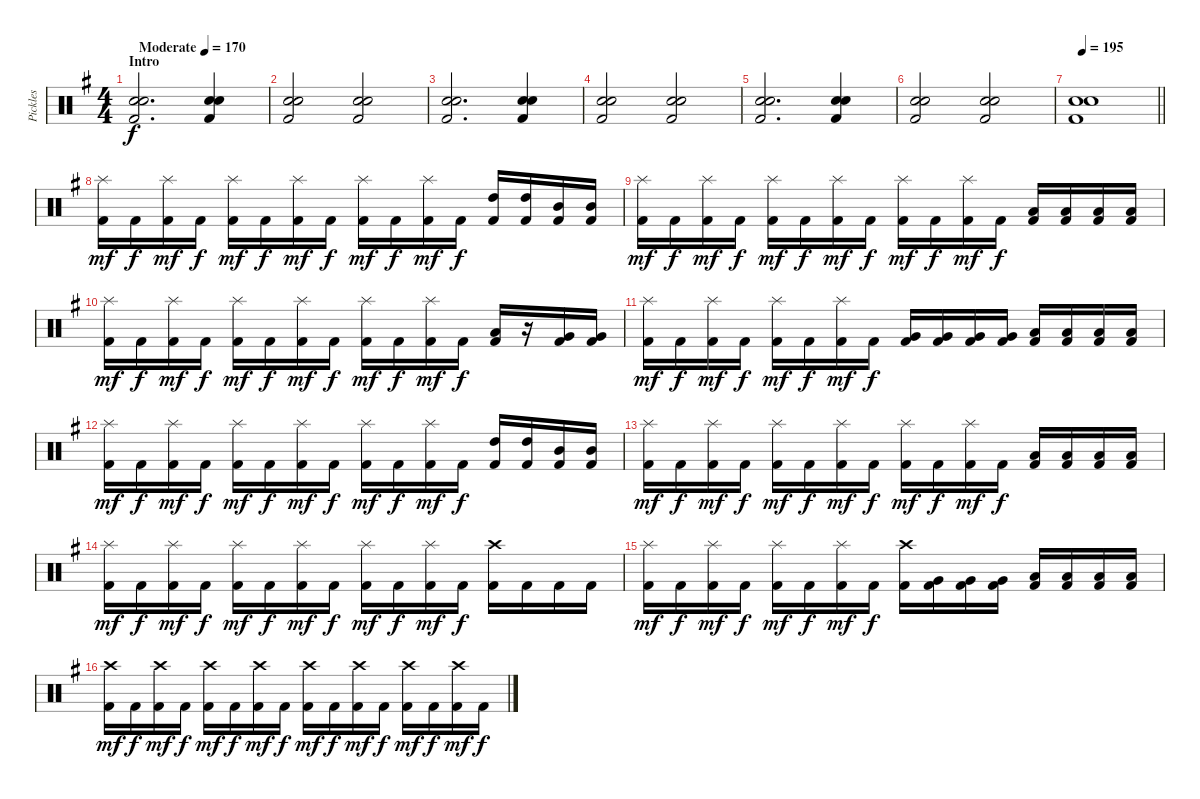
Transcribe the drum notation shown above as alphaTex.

\track ("Pickles" "Pickles") {instrument percussion}
\staff {score}
\articulation defaults
\ts (4 4)
\section ("" "Intro")
\tempo (170 "Moderate")
\clef neutral
\ks eminor
("Snare (hit) 2" "Snare (hit) 2" "Kick (hit) 2").2{d dy f} ("Snare (hit) 2" "Snare (hit) 2" "Kick (hit) 2").4 |
("Snare (hit) 2" "Snare (hit) 2" "Kick (hit) 2").2 ("Snare (hit) 2" "Snare (hit) 2" "Kick (hit) 2").2 |
("Snare (hit) 2" "Snare (hit) 2" "Kick (hit) 2").2{d} ("Snare (hit) 2" "Snare (hit) 2" "Kick (hit) 2").4 |
("Snare (hit) 2" "Snare (hit) 2" "Kick (hit) 2").2 ("Snare (hit) 2" "Snare (hit) 2" "Kick (hit) 2").2 |
("Snare (hit) 2" "Snare (hit) 2" "Kick (hit) 2").2{d} ("Snare (hit) 2" "Snare (hit) 2" "Kick (hit) 2").4 |
("Snare (hit) 2" "Snare (hit) 2" "Kick (hit) 2").2 ("Snare (hit) 2" "Snare (hit) 2" "Kick (hit) 2").2 |
\tempo 195
\barLineRight lightlight
("Snare (hit) 2" "Snare (hit) 2" "Kick (hit) 2").1 |
\section ("" "")
("Splash (hit)" "Kick (hit) 2").16{dy mf} "Kick (hit) 2".16{dy f} ("Splash (hit)" "Kick (hit) 2").16{dy mf} "Kick (hit) 2".16{dy f} ("Splash (hit)" "Kick (hit) 2").16{dy mf} "Kick (hit) 2".16{dy f} ("Splash (hit)" "Kick (hit) 2").16{dy mf} "Kick (hit) 2".16{dy f} ("Splash (hit)" "Kick (hit) 2").16{dy mf} "Kick (hit) 2".16{dy f} ("Splash (hit)" "Kick (hit) 2").16{dy mf} "Kick (hit) 2".16{dy f} ("High Tom (hit)" "Kick (hit) 2").16 ("High Tom (hit)" "Kick (hit) 2").16 ("Mid Tom (hit)" "Kick (hit) 2").16 ("Mid Tom (hit)" "Kick (hit) 2").16 |
("Splash (hit)" "Kick (hit) 2").16{dy mf} "Kick (hit) 2".16{dy f} ("Splash (hit)" "Kick (hit) 2").16{dy mf} "Kick (hit) 2".16{dy f} ("Splash (hit)" "Kick (hit) 2").16{dy mf} "Kick (hit) 2".16{dy f} ("Splash (hit)" "Kick (hit) 2").16{dy mf} "Kick (hit) 2".16{dy f} ("Splash (hit)" "Kick (hit) 2").16{dy mf} "Kick (hit) 2".16{dy f} ("Splash (hit)" "Kick (hit) 2").16{dy mf} "Kick (hit) 2".16{dy f} ("Low Tom (hit)" "Kick (hit) 2").16 ("Low Tom (hit)" "Kick (hit) 2").16 ("Low Tom (hit)" "Kick (hit) 2").16 ("Low Tom (hit)" "Kick (hit) 2").16 |
("Splash (hit)" "Kick (hit) 2").16{dy mf} "Kick (hit) 2".16{dy f} ("Splash (hit)" "Kick (hit) 2").16{dy mf} "Kick (hit) 2".16{dy f} ("Splash (hit)" "Kick (hit) 2").16{dy mf} "Kick (hit) 2".16{dy f} ("Splash (hit)" "Kick (hit) 2").16{dy mf} "Kick (hit) 2".16{dy f} ("Splash (hit)" "Kick (hit) 2").16{dy mf} "Kick (hit) 2".16{dy f} ("Splash (hit)" "Kick (hit) 2").16{dy mf} "Kick (hit) 2".16{dy f} ("Low Tom (hit)" "Kick (hit) 2").16 r.16 ("Very Low Tom (hit)" "Kick (hit) 2").16 ("Very Low Tom (hit)" "Kick (hit) 2").16 |
("Splash (hit)" "Kick (hit) 2").16{dy mf} "Kick (hit) 2".16{dy f} ("Splash (hit)" "Kick (hit) 2").16{dy mf} "Kick (hit) 2".16{dy f} ("Splash (hit)" "Kick (hit) 2").16{dy mf} "Kick (hit) 2".16{dy f} ("Splash (hit)" "Kick (hit) 2").16{dy mf} "Kick (hit) 2".16{dy f} ("Very Low Tom (hit)" "Kick (hit) 2").16 ("Very Low Tom (hit)" "Kick (hit) 2").16 ("Very Low Tom (hit)" "Kick (hit) 2").16 ("Very Low Tom (hit)" "Kick (hit) 2").16 ("Low Tom (hit)" "Kick (hit) 2").16 ("Low Tom (hit)" "Kick (hit) 2").16 ("Low Tom (hit)" "Kick (hit) 2").16 ("Low Tom (hit)" "Kick (hit) 2").16 |
("Splash (hit)" "Kick (hit) 2").16{dy mf} "Kick (hit) 2".16{dy f} ("Splash (hit)" "Kick (hit) 2").16{dy mf} "Kick (hit) 2".16{dy f} ("Splash (hit)" "Kick (hit) 2").16{dy mf} "Kick (hit) 2".16{dy f} ("Splash (hit)" "Kick (hit) 2").16{dy mf} "Kick (hit) 2".16{dy f} ("Splash (hit)" "Kick (hit) 2").16{dy mf} "Kick (hit) 2".16{dy f} ("Splash (hit)" "Kick (hit) 2").16{dy mf} "Kick (hit) 2".16{dy f} ("High Tom (hit)" "Kick (hit) 2").16 ("High Tom (hit)" "Kick (hit) 2").16 ("Mid Tom (hit)" "Kick (hit) 2").16 ("Mid Tom (hit)" "Kick (hit) 2").16 |
("Splash (hit)" "Kick (hit) 2").16{dy mf} "Kick (hit) 2".16{dy f} ("Splash (hit)" "Kick (hit) 2").16{dy mf} "Kick (hit) 2".16{dy f} ("Splash (hit)" "Kick (hit) 2").16{dy mf} "Kick (hit) 2".16{dy f} ("Splash (hit)" "Kick (hit) 2").16{dy mf} "Kick (hit) 2".16{dy f} ("Splash (hit)" "Kick (hit) 2").16{dy mf} "Kick (hit) 2".16{dy f} ("Splash (hit)" "Kick (hit) 2").16{dy mf} "Kick (hit) 2".16{dy f} ("Low Tom (hit)" "Kick (hit) 2").16 ("Low Tom (hit)" "Kick (hit) 2").16 ("Low Tom (hit)" "Kick (hit) 2").16 ("Low Tom (hit)" "Kick (hit) 2").16 |
("Splash (hit)" "Kick (hit) 2").16{dy mf} "Kick (hit) 2".16{dy f} ("Splash (hit)" "Kick (hit) 2").16{dy mf} "Kick (hit) 2".16{dy f} ("Splash (hit)" "Kick (hit) 2").16{dy mf} "Kick (hit) 2".16{dy f} ("Splash (hit)" "Kick (hit) 2").16{dy mf} "Kick (hit) 2".16{dy f} ("Splash (hit)" "Kick (hit) 2").16{dy mf} "Kick (hit) 2".16{dy f} ("Splash (hit)" "Kick (hit) 2").16{dy mf} "Kick (hit) 2".16{dy f} ("Crash high (hit)" "Kick (hit) 2").16 "Kick (hit) 2".16 "Kick (hit) 2".16 "Kick (hit) 2".16 |
("Splash (hit)" "Kick (hit) 2").16{dy mf} "Kick (hit) 2".16{dy f} ("Splash (hit)" "Kick (hit) 2").16{dy mf} "Kick (hit) 2".16{dy f} ("Splash (hit)" "Kick (hit) 2").16{dy mf} "Kick (hit) 2".16{dy f} ("Splash (hit)" "Kick (hit) 2").16{dy mf} "Kick (hit) 2".16{dy f} ("Crash high (hit)" "Kick (hit) 2").16 ("Very Low Tom (hit)" "Kick (hit) 2").16 ("Very Low Tom (hit)" "Kick (hit) 2").16 ("Very Low Tom (hit)" "Kick (hit) 2").16 ("Low Tom (hit)" "Kick (hit) 2").16 ("Low Tom (hit)" "Kick (hit) 2").16 ("Low Tom (hit)" "Kick (hit) 2").16 ("Low Tom (hit)" "Kick (hit) 2").16 |
("Crash high (hit)" "Kick (hit) 2").16{dy mf} "Kick (hit) 2".16{dy f} ("Crash high (hit)" "Kick (hit) 2").16{dy mf} "Kick (hit) 2".16{dy f} ("Crash high (hit)" "Kick (hit) 2").16{dy mf} "Kick (hit) 2".16{dy f} ("Crash high (hit)" "Kick (hit) 2").16{dy mf} "Kick (hit) 2".16{dy f} ("Crash high (hit)" "Kick (hit) 2").16{dy mf} "Kick (hit) 2".16{dy f} ("Crash high (hit)" "Kick (hit) 2").16{dy mf} "Kick (hit) 2".16{dy f} ("Crash high (hit)" "Kick (hit) 2").16{dy mf} "Kick (hit) 2".16{dy f} ("Crash high (hit)" "Kick (hit) 2").16{dy mf} "Kick (hit) 2".16{dy f}
